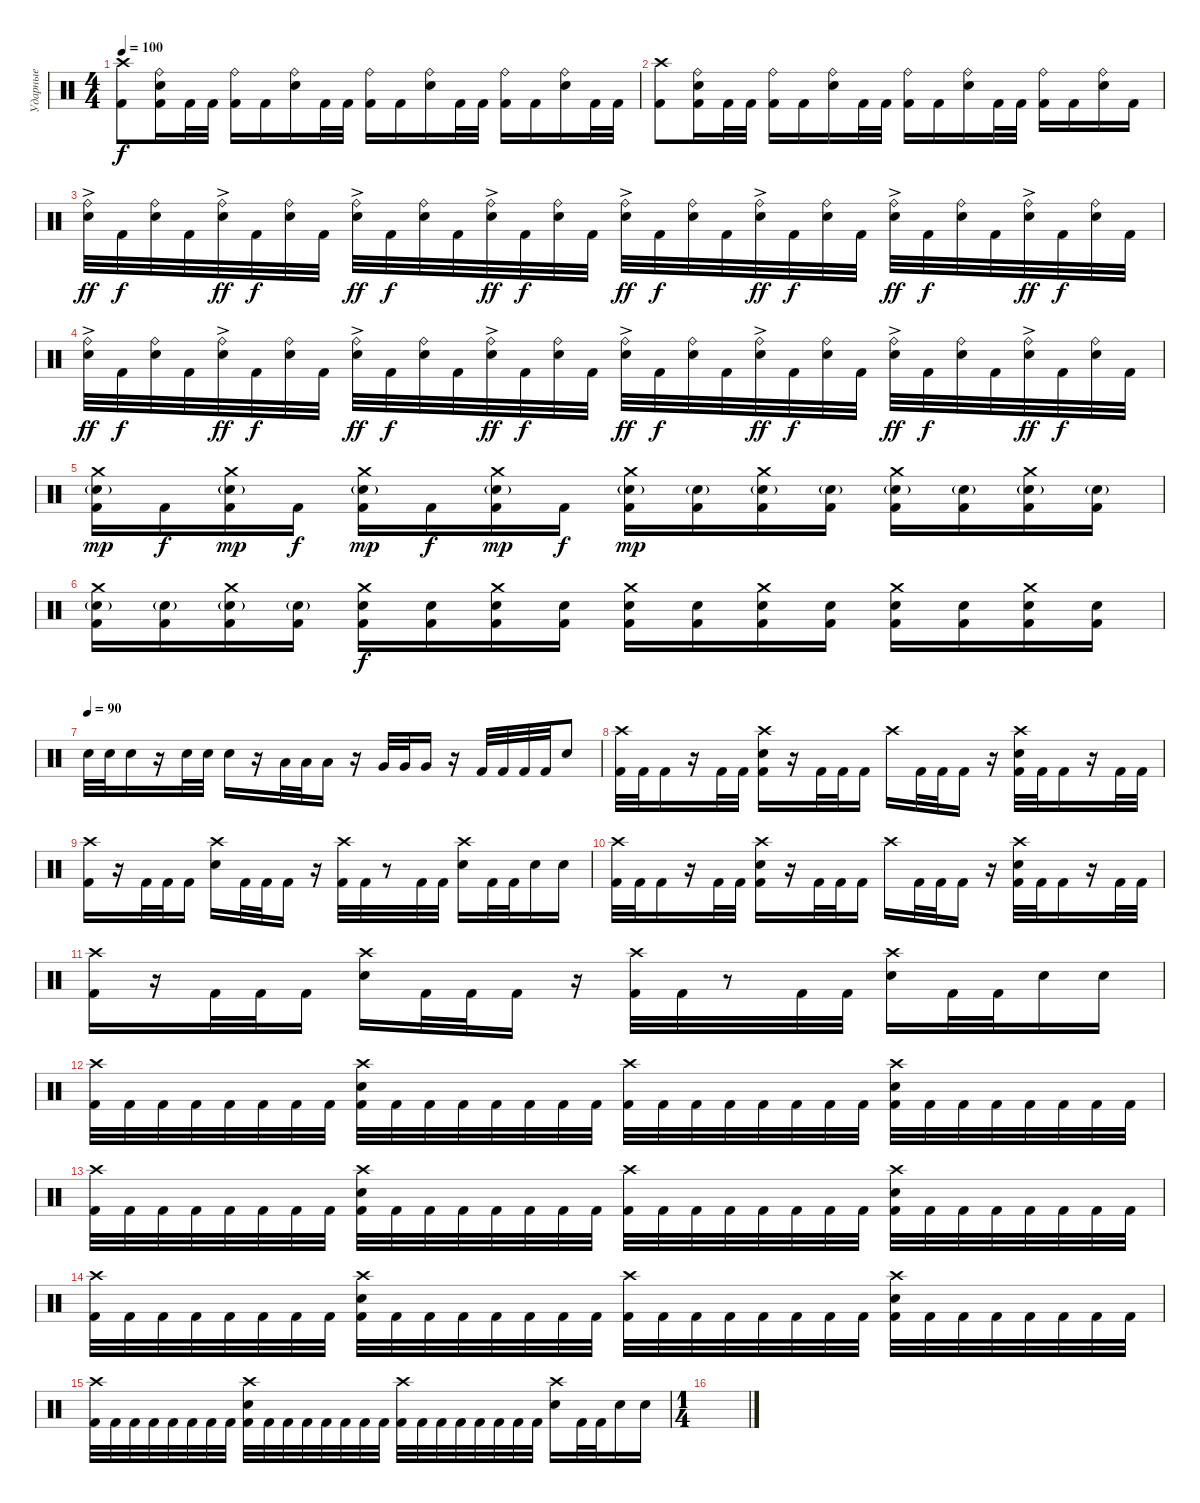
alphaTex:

\track ("Ударные" "Ударные") {instrument percussion}
\staff
\articulation defaults
\ts (4 4)
\tempo 100
\clef neutral
\ks c
("Crash high (hit)" "Kick (hit) 2").8{dy f} ("Ride (bell)" "Electric Snare (hit)" "Kick (hit) 2").16 "Kick (hit) 2".32 "Kick (hit) 2".32 ("Ride (bell)" "Kick (hit) 2").16 "Kick (hit) 2".16 ("Ride (bell)" "Electric Snare (hit)").16 "Kick (hit) 2".32 "Kick (hit) 2".32 ("Ride (bell)" "Kick (hit) 2").16 "Kick (hit) 2".16 ("Ride (bell)" "Electric Snare (hit)").16 "Kick (hit) 2".32 "Kick (hit) 2".32 ("Ride (bell)" "Kick (hit) 2").16 "Kick (hit) 2".16 ("Ride (bell)" "Electric Snare (hit)").16 "Kick (hit) 2".32 "Kick (hit) 2".32 |
("Crash high (hit)" "Kick (hit) 2").8 ("Ride (bell)" "Electric Snare (hit)" "Kick (hit) 2").16 "Kick (hit) 2".32 "Kick (hit) 2".32 ("Ride (bell)" "Kick (hit) 2").16 "Kick (hit) 2".16 ("Ride (bell)" "Electric Snare (hit)").16 "Kick (hit) 2".32 "Kick (hit) 2".32 ("Ride (bell)" "Kick (hit) 2").16 "Kick (hit) 2".16 ("Ride (bell)" "Electric Snare (hit)").16 "Kick (hit) 2".32 "Kick (hit) 2".32 ("Ride (bell)" "Kick (hit) 2").16 "Kick (hit) 2".16 ("Ride (bell)" "Electric Snare (hit)").16 "Kick (hit) 2".16 |
("Ride (bell)"{ac} "Electric Snare (hit)").32{dy ff} "Kick (hit) 2".32{dy f} ("Ride (bell)" "Electric Snare (hit)").32 "Kick (hit) 2".32 ("Ride (bell)"{ac} "Electric Snare (hit)").32{dy ff} "Kick (hit) 2".32{dy f} ("Ride (bell)" "Electric Snare (hit)").32 "Kick (hit) 2".32 ("Ride (bell)"{ac} "Electric Snare (hit)").32{dy ff} "Kick (hit) 2".32{dy f} ("Ride (bell)" "Electric Snare (hit)").32 "Kick (hit) 2".32 ("Ride (bell)"{ac} "Electric Snare (hit)").32{dy ff} "Kick (hit) 2".32{dy f} ("Ride (bell)" "Electric Snare (hit)").32 "Kick (hit) 2".32 ("Ride (bell)"{ac} "Electric Snare (hit)").32{dy ff} "Kick (hit) 2".32{dy f} ("Ride (bell)" "Electric Snare (hit)").32 "Kick (hit) 2".32 ("Ride (bell)"{ac} "Electric Snare (hit)").32{dy ff} "Kick (hit) 2".32{dy f} ("Ride (bell)" "Electric Snare (hit)").32 "Kick (hit) 2".32 ("Ride (bell)"{ac} "Electric Snare (hit)").32{dy ff} "Kick (hit) 2".32{dy f} ("Ride (bell)" "Electric Snare (hit)").32 "Kick (hit) 2".32 ("Ride (bell)"{ac} "Electric Snare (hit)").32{dy ff} "Kick (hit) 2".32{dy f} ("Ride (bell)" "Electric Snare (hit)").32 "Kick (hit) 2".32 |
("Ride (bell)"{ac} "Electric Snare (hit)").32{dy ff} "Kick (hit) 2".32{dy f} ("Ride (bell)" "Electric Snare (hit)").32 "Kick (hit) 2".32 ("Ride (bell)"{ac} "Electric Snare (hit)").32{dy ff} "Kick (hit) 2".32{dy f} ("Ride (bell)" "Electric Snare (hit)").32 "Kick (hit) 2".32 ("Ride (bell)"{ac} "Electric Snare (hit)").32{dy ff} "Kick (hit) 2".32{dy f} ("Ride (bell)" "Electric Snare (hit)").32 "Kick (hit) 2".32 ("Ride (bell)"{ac} "Electric Snare (hit)").32{dy ff} "Kick (hit) 2".32{dy f} ("Ride (bell)" "Electric Snare (hit)").32 "Kick (hit) 2".32 ("Ride (bell)"{ac} "Electric Snare (hit)").32{dy ff} "Kick (hit) 2".32{dy f} ("Ride (bell)" "Electric Snare (hit)").32 "Kick (hit) 2".32 ("Ride (bell)"{ac} "Electric Snare (hit)").32{dy ff} "Kick (hit) 2".32{dy f} ("Ride (bell)" "Electric Snare (hit)").32 "Kick (hit) 2".32 ("Ride (bell)"{ac} "Electric Snare (hit)").32{dy ff} "Kick (hit) 2".32{dy f} ("Ride (bell)" "Electric Snare (hit)").32 "Kick (hit) 2".32 ("Ride (bell)"{ac} "Electric Snare (hit)").32{dy ff} "Kick (hit) 2".32{dy f} ("Ride (bell)" "Electric Snare (hit)").32 "Kick (hit) 2".32 |
("Crash medium (hit)" "Electric Snare (hit)"{g} "Kick (hit) 2").16{dy mp} "Kick (hit) 2".16{dy f} ("Crash medium (hit)" "Electric Snare (hit)"{g} "Kick (hit) 2").16{dy mp} "Kick (hit) 2".16{dy f} ("Crash medium (hit)" "Electric Snare (hit)"{g} "Kick (hit) 2").16{dy mp} "Kick (hit) 2".16{dy f} ("Crash medium (hit)" "Electric Snare (hit)"{g} "Kick (hit) 2").16{dy mp} "Kick (hit) 2".16{dy f} ("Crash medium (hit)" "Electric Snare (hit)"{g} "Kick (hit) 2").16{dy mp} ("Electric Snare (hit)"{g} "Kick (hit) 2").16 ("Crash medium (hit)" "Electric Snare (hit)"{g} "Kick (hit) 2").16 ("Electric Snare (hit)"{g} "Kick (hit) 2").16 ("Crash medium (hit)" "Electric Snare (hit)"{g} "Kick (hit) 2").16 ("Electric Snare (hit)"{g} "Kick (hit) 2").16 ("Crash medium (hit)" "Electric Snare (hit)"{g} "Kick (hit) 2").16 ("Electric Snare (hit)"{g} "Kick (hit) 2").16 |
("Crash medium (hit)" "Electric Snare (hit)"{g} "Kick (hit) 2").16 ("Electric Snare (hit)"{g} "Kick (hit) 2").16 ("Crash medium (hit)" "Electric Snare (hit)"{g} "Kick (hit) 2").16 ("Electric Snare (hit)"{g} "Kick (hit) 2").16 ("Crash medium (hit)" "Electric Snare (hit)" "Kick (hit) 2").16{dy f} ("Electric Snare (hit)" "Kick (hit) 2").16 ("Crash medium (hit)" "Electric Snare (hit)" "Kick (hit) 2").16 ("Electric Snare (hit)" "Kick (hit) 2").16 ("Crash medium (hit)" "Electric Snare (hit)" "Kick (hit) 2").16 ("Electric Snare (hit)" "Kick (hit) 2").16 ("Crash medium (hit)" "Electric Snare (hit)" "Kick (hit) 2").16 ("Electric Snare (hit)" "Kick (hit) 2").16 ("Crash medium (hit)" "Electric Snare (hit)" "Kick (hit) 2").16 ("Electric Snare (hit)" "Kick (hit) 2").16 ("Crash medium (hit)" "Electric Snare (hit)" "Kick (hit) 2").16 ("Electric Snare (hit)" "Kick (hit) 2").16 |
\tempo (90)
"Electric Snare (hit)".32 "Electric Snare (hit)".32 "Electric Snare (hit)".16 r.16 "Electric Snare (hit)".32 "Electric Snare (hit)".32 "Electric Snare (hit)".16 r.16 "Low Tom (hit)".32 "Low Tom (hit)".32 "Low Tom (hit)".16 r.16 "Very Low Tom (hit)".32 "Very Low Tom (hit)".32 "Very Low Tom (hit)".16 r.16 "Kick (hit) 2".32 "Kick (hit) 2".32 "Kick (hit) 2".32 "Kick (hit) 2".32 "Electric Snare (hit)".8 |
("Crash high (hit)" "Kick (hit) 2").32 "Kick (hit) 2".32 "Kick (hit) 2".16 r.16 "Kick (hit) 2".32 "Kick (hit) 2".32 ("Crash high (hit)" "Electric Snare (hit)" "Kick (hit) 2").16 r.16 "Kick (hit) 2".32 "Kick (hit) 2".32 "Kick (hit) 2".16 "Crash high (hit)".16 "Kick (hit) 2".32 "Kick (hit) 2".32 "Kick (hit) 2".16 r.16 ("Crash high (hit)" "Electric Snare (hit)" "Kick (hit) 2").32 "Kick (hit) 2".32 "Kick (hit) 2".16 r.16 "Kick (hit) 2".32 "Kick (hit) 2".32 |
("Crash high (hit)" "Kick (hit) 2").16 r.16 "Kick (hit) 2".32 "Kick (hit) 2".32 "Kick (hit) 2".16 ("Crash high (hit)" "Electric Snare (hit)").16 "Kick (hit) 2".32 "Kick (hit) 2".32 "Kick (hit) 2".16 r.16 ("Crash high (hit)" "Kick (hit) 2").32 "Kick (hit) 2".32 r.8 "Kick (hit) 2".32 "Kick (hit) 2".32 ("Crash high (hit)" "Electric Snare (hit)").16 "Kick (hit) 2".32 "Kick (hit) 2".32 "Electric Snare (hit)".16 "Electric Snare (hit)".16 |
("Crash high (hit)" "Kick (hit) 2").32 "Kick (hit) 2".32 "Kick (hit) 2".16 r.16 "Kick (hit) 2".32 "Kick (hit) 2".32 ("Crash high (hit)" "Electric Snare (hit)" "Kick (hit) 2").16 r.16 "Kick (hit) 2".32 "Kick (hit) 2".32 "Kick (hit) 2".16 "Crash high (hit)".16 "Kick (hit) 2".32 "Kick (hit) 2".32 "Kick (hit) 2".16 r.16 ("Crash high (hit)" "Electric Snare (hit)" "Kick (hit) 2").32 "Kick (hit) 2".32 "Kick (hit) 2".16 r.16 "Kick (hit) 2".32 "Kick (hit) 2".32 |
("Crash high (hit)" "Kick (hit) 2").16 r.16 "Kick (hit) 2".32 "Kick (hit) 2".32 "Kick (hit) 2".16 ("Crash high (hit)" "Electric Snare (hit)").16 "Kick (hit) 2".32 "Kick (hit) 2".32 "Kick (hit) 2".16 r.16 ("Crash high (hit)" "Kick (hit) 2").32 "Kick (hit) 2".32 r.8 "Kick (hit) 2".32 "Kick (hit) 2".32 ("Crash high (hit)" "Electric Snare (hit)").16 "Kick (hit) 2".32 "Kick (hit) 2".32 "Electric Snare (hit)".16 "Electric Snare (hit)".16 |
("Crash high (hit)" "Kick (hit) 2").32 "Kick (hit) 2".32 "Kick (hit) 2".32 "Kick (hit) 2".32 "Kick (hit) 2".32 "Kick (hit) 2".32 "Kick (hit) 2".32 "Kick (hit) 2".32 ("Crash high (hit)" "Electric Snare (hit)" "Kick (hit) 2").32 "Kick (hit) 2".32 "Kick (hit) 2".32 "Kick (hit) 2".32 "Kick (hit) 2".32 "Kick (hit) 2".32 "Kick (hit) 2".32 "Kick (hit) 2".32 ("Crash high (hit)" "Kick (hit) 2").32 "Kick (hit) 2".32 "Kick (hit) 2".32 "Kick (hit) 2".32 "Kick (hit) 2".32 "Kick (hit) 2".32 "Kick (hit) 2".32 "Kick (hit) 2".32 ("Crash high (hit)" "Electric Snare (hit)" "Kick (hit) 2").32 "Kick (hit) 2".32 "Kick (hit) 2".32 "Kick (hit) 2".32 "Kick (hit) 2".32 "Kick (hit) 2".32 "Kick (hit) 2".32 "Kick (hit) 2".32 |
("Crash high (hit)" "Kick (hit) 2").32 "Kick (hit) 2".32 "Kick (hit) 2".32 "Kick (hit) 2".32 "Kick (hit) 2".32 "Kick (hit) 2".32 "Kick (hit) 2".32 "Kick (hit) 2".32 ("Crash high (hit)" "Electric Snare (hit)" "Kick (hit) 2").32 "Kick (hit) 2".32 "Kick (hit) 2".32 "Kick (hit) 2".32 "Kick (hit) 2".32 "Kick (hit) 2".32 "Kick (hit) 2".32 "Kick (hit) 2".32 ("Crash high (hit)" "Kick (hit) 2").32 "Kick (hit) 2".32 "Kick (hit) 2".32 "Kick (hit) 2".32 "Kick (hit) 2".32 "Kick (hit) 2".32 "Kick (hit) 2".32 "Kick (hit) 2".32 ("Crash high (hit)" "Electric Snare (hit)" "Kick (hit) 2").32 "Kick (hit) 2".32 "Kick (hit) 2".32 "Kick (hit) 2".32 "Kick (hit) 2".32 "Kick (hit) 2".32 "Kick (hit) 2".32 "Kick (hit) 2".32 |
("Crash high (hit)" "Kick (hit) 2").32 "Kick (hit) 2".32 "Kick (hit) 2".32 "Kick (hit) 2".32 "Kick (hit) 2".32 "Kick (hit) 2".32 "Kick (hit) 2".32 "Kick (hit) 2".32 ("Crash high (hit)" "Electric Snare (hit)" "Kick (hit) 2").32 "Kick (hit) 2".32 "Kick (hit) 2".32 "Kick (hit) 2".32 "Kick (hit) 2".32 "Kick (hit) 2".32 "Kick (hit) 2".32 "Kick (hit) 2".32 ("Crash high (hit)" "Kick (hit) 2").32 "Kick (hit) 2".32 "Kick (hit) 2".32 "Kick (hit) 2".32 "Kick (hit) 2".32 "Kick (hit) 2".32 "Kick (hit) 2".32 "Kick (hit) 2".32 ("Crash high (hit)" "Electric Snare (hit)" "Kick (hit) 2").32 "Kick (hit) 2".32 "Kick (hit) 2".32 "Kick (hit) 2".32 "Kick (hit) 2".32 "Kick (hit) 2".32 "Kick (hit) 2".32 "Kick (hit) 2".32 |
("Crash high (hit)" "Kick (hit) 2").32 "Kick (hit) 2".32 "Kick (hit) 2".32 "Kick (hit) 2".32 "Kick (hit) 2".32 "Kick (hit) 2".32 "Kick (hit) 2".32 "Kick (hit) 2".32 ("Crash high (hit)" "Electric Snare (hit)" "Kick (hit) 2").32 "Kick (hit) 2".32 "Kick (hit) 2".32 "Kick (hit) 2".32 "Kick (hit) 2".32 "Kick (hit) 2".32 "Kick (hit) 2".32 "Kick (hit) 2".32 ("Crash high (hit)" "Kick (hit) 2").32 "Kick (hit) 2".32 "Kick (hit) 2".32 "Kick (hit) 2".32 "Kick (hit) 2".32 "Kick (hit) 2".32 "Kick (hit) 2".32 "Kick (hit) 2".32 ("Crash high (hit)" "Electric Snare (hit)").16 "Kick (hit) 2".32 "Kick (hit) 2".32 "Electric Snare (hit)".16 "Electric Snare (hit)".16 |
\ts (1 4)
